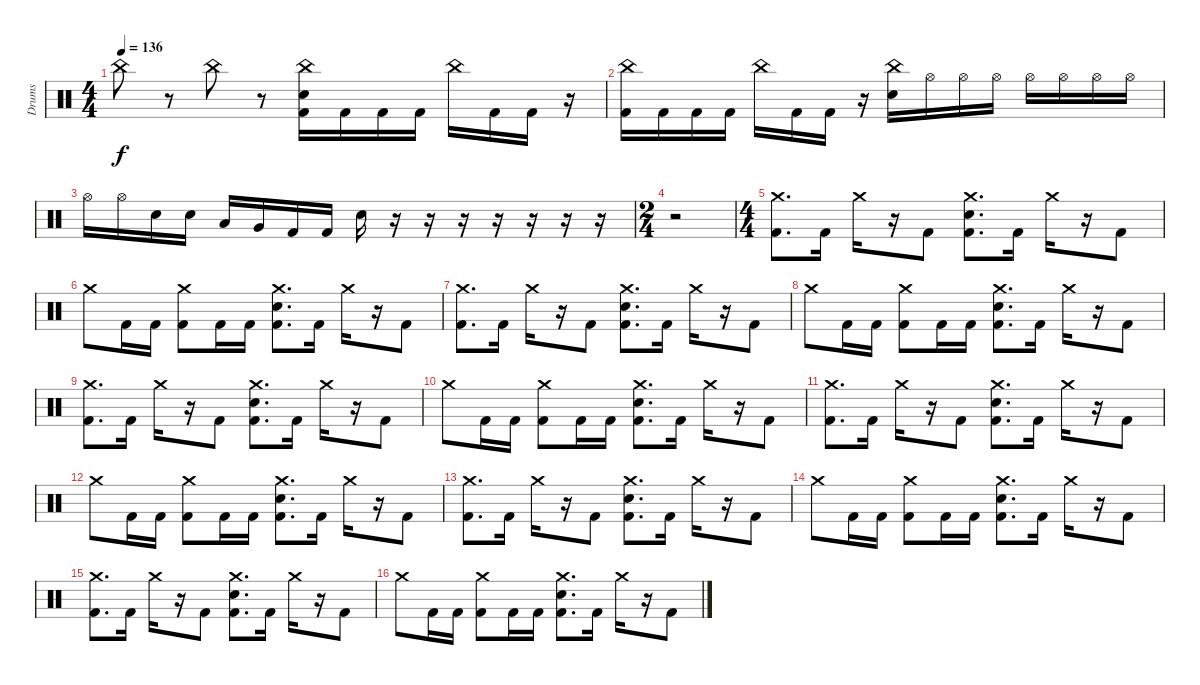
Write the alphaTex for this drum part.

\track ("Drums" "Drums") {instrument percussion}
\staff {score}
\articulation defaults
\ts (4 4)
\tempo 136
\clef neutral
\ks c "China (hit)".8{dy f}
r.8 "China (hit)".8 r.8 ("China (hit)" "Electric Snare (hit)" "Kick (hit) 2").16 "Kick (hit) 2".16 "Kick (hit) 2".16 "Kick (hit) 2".16 "China (hit)".16 "Kick (hit) 2".16 "Kick (hit) 2".16 r.16 |
("China (hit)" "Kick (hit) 2").16 "Kick (hit) 2".16 "Kick (hit) 2".16 "Kick (hit) 2".16 "China (hit)".16 "Kick (hit) 2".16 "Kick (hit) 2".16 r.16 ("China (hit)" "Electric Snare (hit)").16 "Hi-Hat (open)".16 "Hi-Hat (open)".16 "Hi-Hat (open)".16 "Hi-Hat (open)".16 "Hi-Hat (open)".16 "Hi-Hat (open)".16 "Hi-Hat (open)".16 |
"Hi-Hat (open)".16 "Hi-Hat (open)".16 "Electric Snare (hit)".16 "Electric Snare (hit)".16 "Low Tom (hit)".16 "Very Low Tom (hit)".16 "Kick (hit) 2".16 "Kick (hit) 2".16 "Electric Snare (hit)".16 r.16 r.16 r.16 r.16 r.16 r.16 r.16 |
\ts (2 4)
r.2 |
\ts (4 4)
("Crash medium (hit)" "Kick (hit) 2").8{d} "Kick (hit) 2".16 "Crash medium (hit)".16 r.16 "Kick (hit) 2".8 ("Crash medium (hit)" "Electric Snare (hit)" "Kick (hit) 2").8{d} "Kick (hit) 2".16 "Crash medium (hit)".16 r.16 "Kick (hit) 2".8 |
"Crash medium (hit)".8 "Kick (hit) 2".16 "Kick (hit) 2".16 ("Crash medium (hit)" "Kick (hit) 2").8 "Kick (hit) 2".16 "Kick (hit) 2".16 ("Crash medium (hit)" "Electric Snare (hit)" "Kick (hit) 2").8{d} "Kick (hit) 2".16 "Crash medium (hit)".16 r.16 "Kick (hit) 2".8 |
("Crash medium (hit)" "Kick (hit) 2").8{d} "Kick (hit) 2".16 "Crash medium (hit)".16 r.16 "Kick (hit) 2".8 ("Crash medium (hit)" "Electric Snare (hit)" "Kick (hit) 2").8{d} "Kick (hit) 2".16 "Crash medium (hit)".16 r.16 "Kick (hit) 2".8 |
"Crash medium (hit)".8 "Kick (hit) 2".16 "Kick (hit) 2".16 ("Crash medium (hit)" "Kick (hit) 2").8 "Kick (hit) 2".16 "Kick (hit) 2".16 ("Crash medium (hit)" "Electric Snare (hit)" "Kick (hit) 2").8{d} "Kick (hit) 2".16 "Crash medium (hit)".16 r.16 "Kick (hit) 2".8 |
("Crash medium (hit)" "Kick (hit) 2").8{d} "Kick (hit) 2".16 "Crash medium (hit)".16 r.16 "Kick (hit) 2".8 ("Crash medium (hit)" "Electric Snare (hit)" "Kick (hit) 2").8{d} "Kick (hit) 2".16 "Crash medium (hit)".16 r.16 "Kick (hit) 2".8 |
"Crash medium (hit)".8 "Kick (hit) 2".16 "Kick (hit) 2".16 ("Crash medium (hit)" "Kick (hit) 2").8 "Kick (hit) 2".16 "Kick (hit) 2".16 ("Crash medium (hit)" "Electric Snare (hit)" "Kick (hit) 2").8{d} "Kick (hit) 2".16 "Crash medium (hit)".16 r.16 "Kick (hit) 2".8 |
("Crash medium (hit)" "Kick (hit) 2").8{d} "Kick (hit) 2".16 "Crash medium (hit)".16 r.16 "Kick (hit) 2".8 ("Crash medium (hit)" "Electric Snare (hit)" "Kick (hit) 2").8{d} "Kick (hit) 2".16 "Crash medium (hit)".16 r.16 "Kick (hit) 2".8 |
"Crash medium (hit)".8 "Kick (hit) 2".16 "Kick (hit) 2".16 ("Crash medium (hit)" "Kick (hit) 2").8 "Kick (hit) 2".16 "Kick (hit) 2".16 ("Crash medium (hit)" "Electric Snare (hit)" "Kick (hit) 2").8{d} "Kick (hit) 2".16 "Crash medium (hit)".16 r.16 "Kick (hit) 2".8 |
("Crash medium (hit)" "Kick (hit) 2").8{d} "Kick (hit) 2".16 "Crash medium (hit)".16 r.16 "Kick (hit) 2".8 ("Crash medium (hit)" "Electric Snare (hit)" "Kick (hit) 2").8{d} "Kick (hit) 2".16 "Crash medium (hit)".16 r.16 "Kick (hit) 2".8 |
"Crash medium (hit)".8 "Kick (hit) 2".16 "Kick (hit) 2".16 ("Crash medium (hit)" "Kick (hit) 2").8 "Kick (hit) 2".16 "Kick (hit) 2".16 ("Crash medium (hit)" "Electric Snare (hit)" "Kick (hit) 2").8{d} "Kick (hit) 2".16 "Crash medium (hit)".16 r.16 "Kick (hit) 2".8 |
("Crash medium (hit)" "Kick (hit) 2").8{d} "Kick (hit) 2".16 "Crash medium (hit)".16 r.16 "Kick (hit) 2".8 ("Crash medium (hit)" "Electric Snare (hit)" "Kick (hit) 2").8{d} "Kick (hit) 2".16 "Crash medium (hit)".16 r.16 "Kick (hit) 2".8 |
"Crash medium (hit)".8 "Kick (hit) 2".16 "Kick (hit) 2".16 ("Crash medium (hit)" "Kick (hit) 2").8 "Kick (hit) 2".16 "Kick (hit) 2".16 ("Crash medium (hit)" "Electric Snare (hit)" "Kick (hit) 2").8{d} "Kick (hit) 2".16 "Crash medium (hit)".16 r.16 "Kick (hit) 2".8
